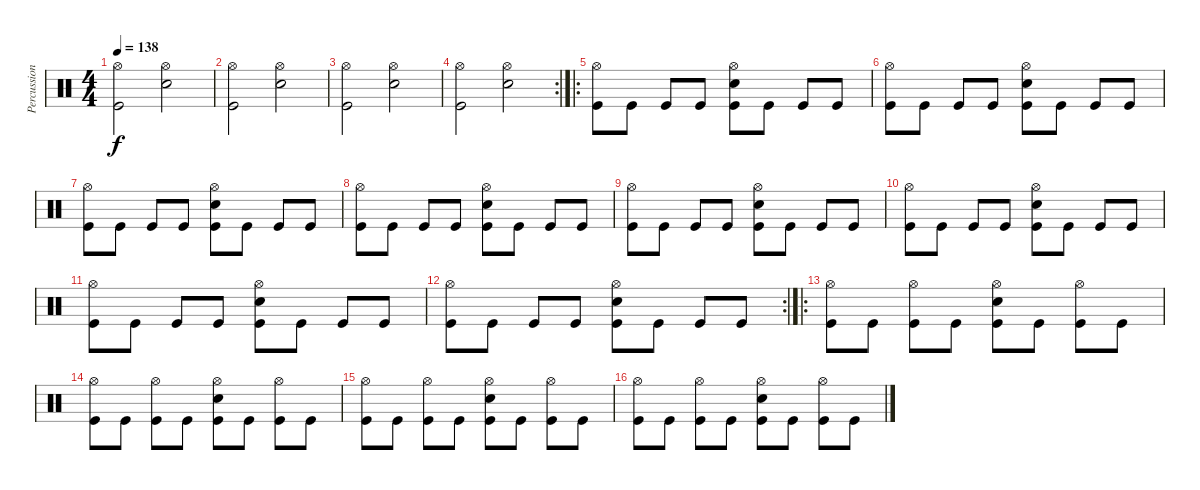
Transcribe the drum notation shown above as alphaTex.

\track ("Percussion" "Percussion") {instrument percussion}
\staff {score}
\articulation defaults
\ts (4 4)
\tempo 138
\clef neutral
\ks c
("Hi-Hat (open)" "Kick (hit)").2{dy f} ("Hi-Hat (open)" "Electric Snare (hit)").2 |
("Hi-Hat (open)" "Kick (hit)").2 ("Hi-Hat (open)" "Electric Snare (hit)").2 |
("Hi-Hat (open)" "Kick (hit)").2 ("Hi-Hat (open)" "Electric Snare (hit)").2 |
\rc 2
("Hi-Hat (open)" "Kick (hit)").2 ("Hi-Hat (open)" "Electric Snare (hit)").2 |
\ro
("Hi-Hat (open)" "Kick (hit)").8 "Kick (hit)".8 "Kick (hit)".8 "Kick (hit)".8 ("Hi-Hat (open)" "Electric Snare (hit)" "Kick (hit)").8 "Kick (hit)".8 "Kick (hit)".8 "Kick (hit)".8 |
("Hi-Hat (open)" "Kick (hit)").8 "Kick (hit)".8 "Kick (hit)".8 "Kick (hit)".8 ("Hi-Hat (open)" "Electric Snare (hit)" "Kick (hit)").8 "Kick (hit)".8 "Kick (hit)".8 "Kick (hit)".8 |
("Hi-Hat (open)" "Kick (hit)").8 "Kick (hit)".8 "Kick (hit)".8 "Kick (hit)".8 ("Hi-Hat (open)" "Electric Snare (hit)" "Kick (hit)").8 "Kick (hit)".8 "Kick (hit)".8 "Kick (hit)".8 |
("Hi-Hat (open)" "Kick (hit)").8 "Kick (hit)".8 "Kick (hit)".8 "Kick (hit)".8 ("Hi-Hat (open)" "Electric Snare (hit)" "Kick (hit)").8 "Kick (hit)".8 "Kick (hit)".8 "Kick (hit)".8 |
("Hi-Hat (open)" "Kick (hit)").8 "Kick (hit)".8 "Kick (hit)".8 "Kick (hit)".8 ("Hi-Hat (open)" "Electric Snare (hit)" "Kick (hit)").8 "Kick (hit)".8 "Kick (hit)".8 "Kick (hit)".8 |
("Hi-Hat (open)" "Kick (hit)").8 "Kick (hit)".8 "Kick (hit)".8 "Kick (hit)".8 ("Hi-Hat (open)" "Electric Snare (hit)" "Kick (hit)").8 "Kick (hit)".8 "Kick (hit)".8 "Kick (hit)".8 |
("Hi-Hat (open)" "Kick (hit)").8 "Kick (hit)".8 "Kick (hit)".8 "Kick (hit)".8 ("Hi-Hat (open)" "Electric Snare (hit)" "Kick (hit)").8 "Kick (hit)".8 "Kick (hit)".8 "Kick (hit)".8 |
\rc 2
("Hi-Hat (open)" "Kick (hit)").8 "Kick (hit)".8 "Kick (hit)".8 "Kick (hit)".8 ("Hi-Hat (open)" "Electric Snare (hit)" "Kick (hit)").8 "Kick (hit)".8 "Kick (hit)".8 "Kick (hit)".8 |
\ro
("Hi-Hat (open)" "Kick (hit)").8 "Kick (hit)".8 ("Hi-Hat (open)" "Kick (hit)").8 "Kick (hit)".8 ("Hi-Hat (open)" "Electric Snare (hit)" "Kick (hit)").8 "Kick (hit)".8 ("Hi-Hat (open)" "Kick (hit)").8 "Kick (hit)".8 |
("Hi-Hat (open)" "Kick (hit)").8 "Kick (hit)".8 ("Hi-Hat (open)" "Kick (hit)").8 "Kick (hit)".8 ("Hi-Hat (open)" "Electric Snare (hit)" "Kick (hit)").8 "Kick (hit)".8 ("Hi-Hat (open)" "Kick (hit)").8 "Kick (hit)".8 |
("Hi-Hat (open)" "Kick (hit)").8 "Kick (hit)".8 ("Hi-Hat (open)" "Kick (hit)").8 "Kick (hit)".8 ("Hi-Hat (open)" "Electric Snare (hit)" "Kick (hit)").8 "Kick (hit)".8 ("Hi-Hat (open)" "Kick (hit)").8 "Kick (hit)".8 |
("Hi-Hat (open)" "Kick (hit)").8 "Kick (hit)".8 ("Hi-Hat (open)" "Kick (hit)").8 "Kick (hit)".8 ("Hi-Hat (open)" "Electric Snare (hit)" "Kick (hit)").8 "Kick (hit)".8 ("Hi-Hat (open)" "Kick (hit)").8 "Kick (hit)".8
